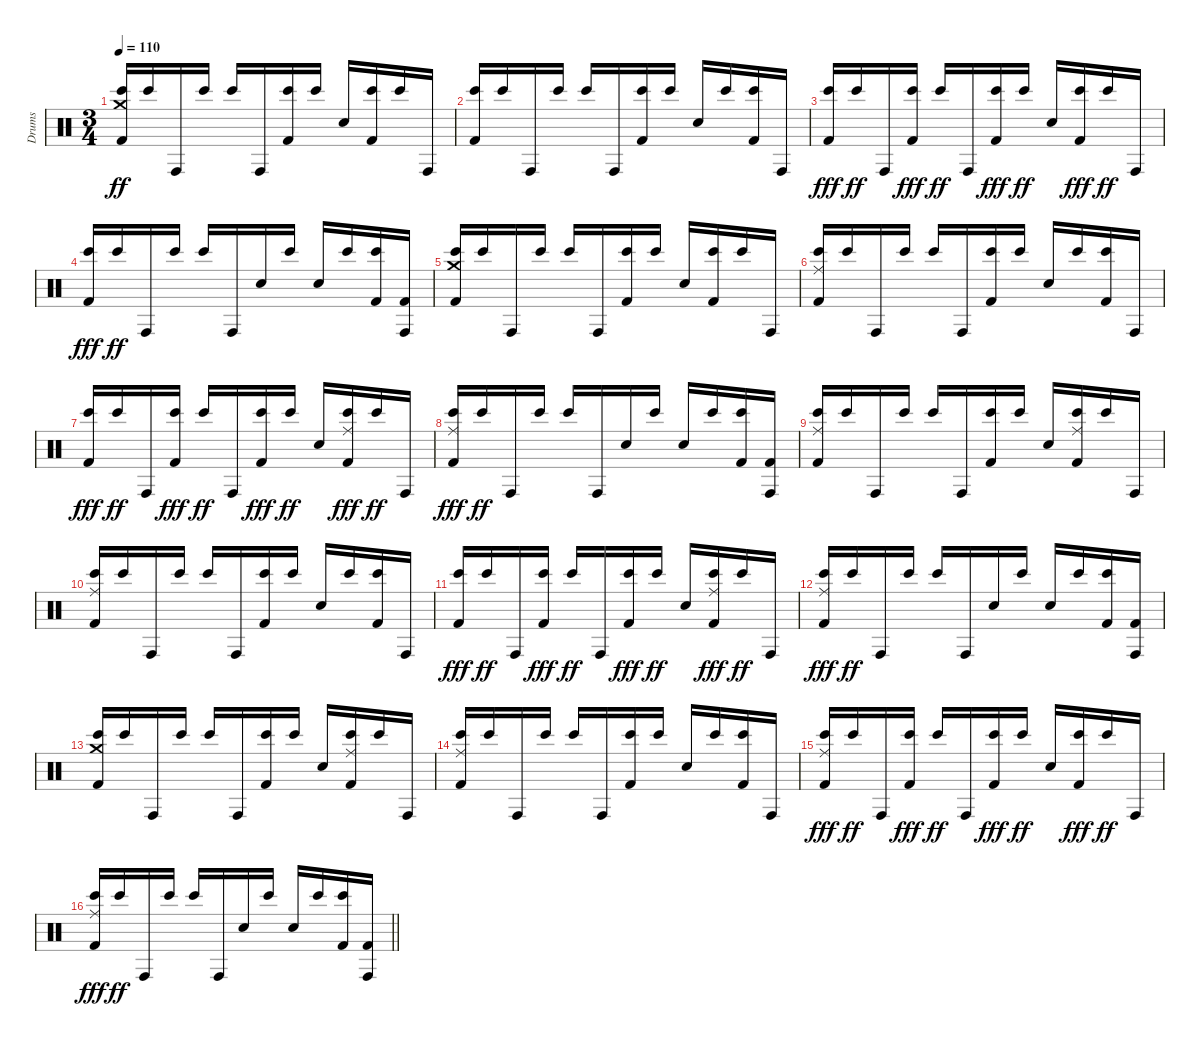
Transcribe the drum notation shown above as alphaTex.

\track ("Drums" "Drums") {instrument percussion}
\staff {score}
\articulation defaults
\ts (3 4)
\section ("" "")
\tempo 110
\clef neutral
\ks c
("Crash medium (hit)" "Bongo High (hit)" "Kick (hit) 2").16{dy ff} "Bongo High (hit)".16 "Conga high (hit)".16 "Bongo High (hit)".16 "Bongo High (hit)".16 "Conga high (hit)".16 ("Bongo High (hit)" "Kick (hit) 2").16 "Bongo High (hit)".16 "Snare (hit) 2".16 ("Bongo High (hit)" "Kick (hit) 2").16 "Bongo High (hit)".16 "Conga high (hit)".16 |
("Bongo High (hit)" "Kick (hit) 2").16 "Bongo High (hit)".16 "Conga high (hit)".16 "Bongo High (hit)".16 "Bongo High (hit)".16 "Conga high (hit)".16 ("Bongo High (hit)" "Kick (hit) 2").16 "Bongo High (hit)".16 "Snare (hit) 2".16 "Bongo High (hit)".16 ("Bongo High (hit)" "Kick (hit) 2").16 "Conga high (hit)".16 |
("Bongo High (hit)" "Kick (hit) 2").16{dy fff} "Bongo High (hit)".16{dy ff} "Conga high (hit)".16 ("Bongo High (hit)" "Kick (hit) 2").16{dy fff} "Bongo High (hit)".16{dy ff} "Conga high (hit)".16 ("Bongo High (hit)" "Kick (hit) 2").16{dy fff} "Bongo High (hit)".16{dy ff} "Snare (hit) 2".16 ("Bongo High (hit)" "Kick (hit) 2").16{dy fff} "Bongo High (hit)".16{dy ff} "Conga high (hit)".16 |
("Bongo High (hit)" "Kick (hit) 2").16{dy fff} "Bongo High (hit)".16{dy ff} "Conga high (hit)".16 "Bongo High (hit)".16 "Bongo High (hit)".16 "Conga high (hit)".16 "Snare (hit) 2".16 "Bongo High (hit)".16 "Snare (hit) 2".16 "Bongo High (hit)".16 ("Bongo High (hit)" "Kick (hit) 2").16 ("Conga high (hit)" "Kick (hit) 2").16 |
("Crash medium (hit)" "Bongo High (hit)" "Kick (hit) 2").16 "Bongo High (hit)".16 "Conga high (hit)".16 "Bongo High (hit)".16 "Bongo High (hit)".16 "Conga high (hit)".16 ("Bongo High (hit)" "Kick (hit) 2").16 "Bongo High (hit)".16 "Snare (hit) 2".16 ("Bongo High (hit)" "Kick (hit) 2").16 "Bongo High (hit)".16 "Conga high (hit)".16 |
("Ride (middle)" "Bongo High (hit)" "Kick (hit) 2").16 "Bongo High (hit)".16 "Conga high (hit)".16 "Bongo High (hit)".16 "Bongo High (hit)".16 "Conga high (hit)".16 ("Bongo High (hit)" "Kick (hit) 2").16 "Bongo High (hit)".16 "Snare (hit) 2".16 "Bongo High (hit)".16 ("Bongo High (hit)" "Kick (hit) 2").16 "Conga high (hit)".16 |
("Bongo High (hit)" "Kick (hit) 2").16{dy fff} "Bongo High (hit)".16{dy ff} "Conga high (hit)".16 ("Bongo High (hit)" "Kick (hit) 2").16{dy fff} "Bongo High (hit)".16{dy ff} "Conga high (hit)".16 ("Bongo High (hit)" "Kick (hit) 2").16{dy fff} "Bongo High (hit)".16{dy ff} "Snare (hit) 2".16 ("Ride (middle)" "Bongo High (hit)" "Kick (hit) 2").16{dy fff} "Bongo High (hit)".16{dy ff} "Conga high (hit)".16 |
("Ride (middle)" "Bongo High (hit)" "Kick (hit) 2").16{dy fff} "Bongo High (hit)".16{dy ff} "Conga high (hit)".16 "Bongo High (hit)".16 "Bongo High (hit)".16 "Conga high (hit)".16 "Snare (hit) 2".16 "Bongo High (hit)".16 "Snare (hit) 2".16 "Bongo High (hit)".16 ("Bongo High (hit)" "Kick (hit) 2").16 ("Conga high (hit)" "Kick (hit) 2").16 |
("Ride (middle)" "Bongo High (hit)" "Kick (hit) 2").16 "Bongo High (hit)".16 "Conga high (hit)".16 "Bongo High (hit)".16 "Bongo High (hit)".16 "Conga high (hit)".16 ("Bongo High (hit)" "Kick (hit) 2").16 "Bongo High (hit)".16 "Snare (hit) 2".16 ("Ride (middle)" "Bongo High (hit)" "Kick (hit) 2").16 "Bongo High (hit)".16 "Conga high (hit)".16 |
("Ride (middle)" "Bongo High (hit)" "Kick (hit) 2").16 "Bongo High (hit)".16 "Conga high (hit)".16 "Bongo High (hit)".16 "Bongo High (hit)".16 "Conga high (hit)".16 ("Bongo High (hit)" "Kick (hit) 2").16 "Bongo High (hit)".16 "Snare (hit) 2".16 "Bongo High (hit)".16 ("Bongo High (hit)" "Kick (hit) 2").16 "Conga high (hit)".16 |
("Bongo High (hit)" "Kick (hit) 2").16{dy fff} "Bongo High (hit)".16{dy ff} "Conga high (hit)".16 ("Bongo High (hit)" "Kick (hit) 2").16{dy fff} "Bongo High (hit)".16{dy ff} "Conga high (hit)".16 ("Bongo High (hit)" "Kick (hit) 2").16{dy fff} "Bongo High (hit)".16{dy ff} "Snare (hit) 2".16 ("Ride (middle)" "Bongo High (hit)" "Kick (hit) 2").16{dy fff} "Bongo High (hit)".16{dy ff} "Conga high (hit)".16 |
("Ride (middle)" "Bongo High (hit)" "Kick (hit) 2").16{dy fff} "Bongo High (hit)".16{dy ff} "Conga high (hit)".16 "Bongo High (hit)".16 "Bongo High (hit)".16 "Conga high (hit)".16 "Snare (hit) 2".16 "Bongo High (hit)".16 "Snare (hit) 2".16 "Bongo High (hit)".16 ("Bongo High (hit)" "Kick (hit) 2").16 ("Conga high (hit)" "Kick (hit) 2").16 |
("Crash medium (hit)" "Bongo High (hit)" "Kick (hit) 2").16 "Bongo High (hit)".16 "Conga high (hit)".16 "Bongo High (hit)".16 "Bongo High (hit)".16 "Conga high (hit)".16 ("Bongo High (hit)" "Kick (hit) 2").16 "Bongo High (hit)".16 "Snare (hit) 2".16 ("Ride (middle)" "Bongo High (hit)" "Kick (hit) 2").16 "Bongo High (hit)".16 "Conga high (hit)".16 |
("Ride (middle)" "Bongo High (hit)" "Kick (hit) 2").16 "Bongo High (hit)".16 "Conga high (hit)".16 "Bongo High (hit)".16 "Bongo High (hit)".16 "Conga high (hit)".16 ("Bongo High (hit)" "Kick (hit) 2").16 "Bongo High (hit)".16 "Snare (hit) 2".16 "Bongo High (hit)".16 ("Bongo High (hit)" "Kick (hit) 2").16 "Conga high (hit)".16 |
("Ride (middle)" "Bongo High (hit)" "Kick (hit) 2").16{dy fff} "Bongo High (hit)".16{dy ff} "Conga high (hit)".16 ("Bongo High (hit)" "Kick (hit) 2").16{dy fff} "Bongo High (hit)".16{dy ff} "Conga high (hit)".16 ("Bongo High (hit)" "Kick (hit) 2").16{dy fff} "Bongo High (hit)".16{dy ff} "Snare (hit) 2".16 ("Bongo High (hit)" "Kick (hit) 2").16{dy fff} "Bongo High (hit)".16{dy ff} "Conga high (hit)".16 |
\barLineRight lightlight
("Ride (middle)" "Bongo High (hit)" "Kick (hit) 2").16{dy fff} "Bongo High (hit)".16{dy ff} "Conga high (hit)".16 "Bongo High (hit)".16 "Bongo High (hit)".16 "Conga high (hit)".16 "Snare (hit) 2".16 "Bongo High (hit)".16 "Snare (hit) 2".16 "Bongo High (hit)".16 ("Bongo High (hit)" "Kick (hit) 2").16 ("Conga high (hit)" "Kick (hit) 2").16
